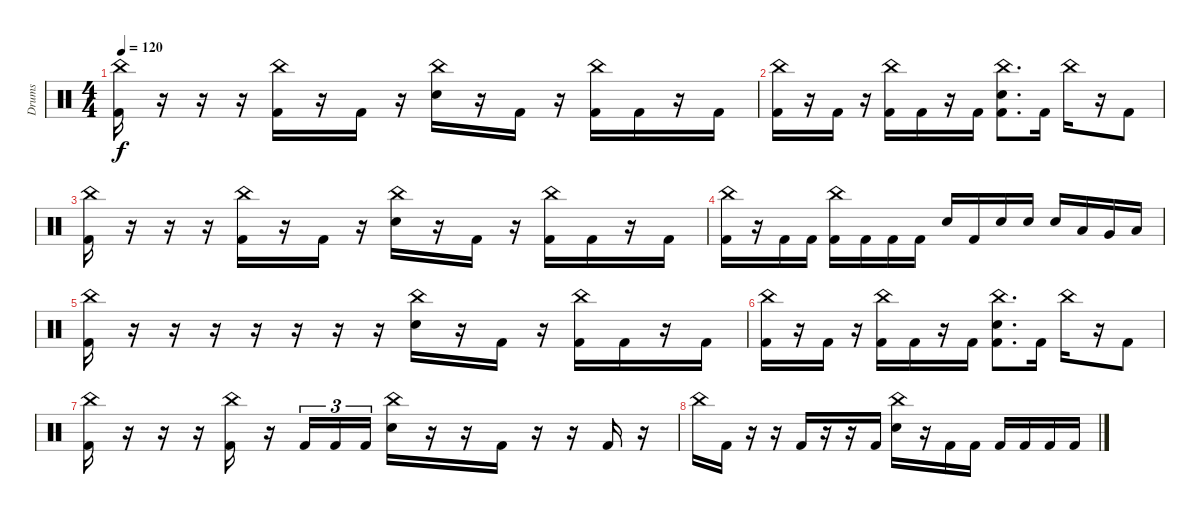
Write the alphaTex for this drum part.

\track ("Drums" "Drums") {instrument percussion}
\staff {score}
\articulation defaults
\ts (4 4)
\tempo 120
\clef neutral
\ks c
("China (hit)" "Kick (hit) 2").16{dy f} r.16 r.16 r.16 ("China (hit)" "Kick (hit) 2").16 r.16 "Kick (hit) 2".16 r.16 ("China (hit)" "Electric Snare (hit)").16 r.16 "Kick (hit) 2".16 r.16 ("China (hit)" "Kick (hit) 2").16 "Kick (hit) 2".16 r.16 "Kick (hit) 2".16 |
("China (hit)" "Kick (hit) 2").16 r.16 "Kick (hit) 2".16 r.16 ("China (hit)" "Kick (hit) 2").16 "Kick (hit) 2".16 r.16 "Kick (hit) 2".16 ("China (hit)" "Electric Snare (hit)" "Kick (hit) 2").8{d} "Kick (hit) 2".16 "China (hit)".16 r.16 "Kick (hit) 2".8 |
("China (hit)" "Kick (hit) 2").16 r.16 r.16 r.16 ("China (hit)" "Kick (hit) 2").16 r.16 "Kick (hit) 2".16 r.16 ("China (hit)" "Electric Snare (hit)").16 r.16 "Kick (hit) 2".16 r.16 ("China (hit)" "Kick (hit) 2").16 "Kick (hit) 2".16 r.16 "Kick (hit) 2".16 |
("China (hit)" "Kick (hit) 2").16 r.16 "Kick (hit) 2".16 "Kick (hit) 2".16 ("China (hit)" "Kick (hit) 2").16 "Kick (hit) 2".16 "Kick (hit) 2".16 "Kick (hit) 2".16 "Electric Snare (hit)".16 "Kick (hit) 2".16 "Electric Snare (hit)".16 "Electric Snare (hit)".16 "Electric Snare (hit)".16 "Low Tom (hit)".16 "Very Low Tom (hit)".16 "Low Floor Tom (hit)".16 |
("China (hit)" "Kick (hit) 2").16 r.16 r.16 r.16 r.16 r.16 r.16 r.16 ("China (hit)" "Electric Snare (hit)").16 r.16 "Kick (hit) 2".16 r.16 ("China (hit)" "Kick (hit) 2").16 "Kick (hit) 2".16 r.16 "Kick (hit) 2".16 |
("China (hit)" "Kick (hit) 2").16 r.16 "Kick (hit) 2".16 r.16 ("China (hit)" "Kick (hit) 2").16 "Kick (hit) 2".16 r.16 "Kick (hit) 2".16 ("China (hit)" "Electric Snare (hit)" "Kick (hit) 2").8{d} "Kick (hit) 2".16 "China (hit)".16 r.16 "Kick (hit) 2".8 |
("China (hit)" "Kick (hit) 2").16 r.16 r.16 r.16 ("China (hit)" "Kick (hit) 2").16 r.16 "Kick (hit) 2".16{tu (3 2)} "Kick (hit) 2".16{tu (3 2)} "Kick (hit) 2".16{tu (3 2)} ("China (hit)" "Electric Snare (hit)").16 r.16 r.16 "Kick (hit) 2".16 r.16 r.16 "Kick (hit) 2".16 r.16 |
"China (hit)".16 "Kick (hit) 2".16 r.16 r.16 "Kick (hit) 2".16 r.16 r.16 "Kick (hit) 2".16 ("China (hit)" "Electric Snare (hit)").16 r.16 "Kick (hit) 2".16 "Kick (hit) 2".16 "Kick (hit) 2".16 "Kick (hit) 2".16 "Kick (hit) 2".16 "Kick (hit) 2".16
